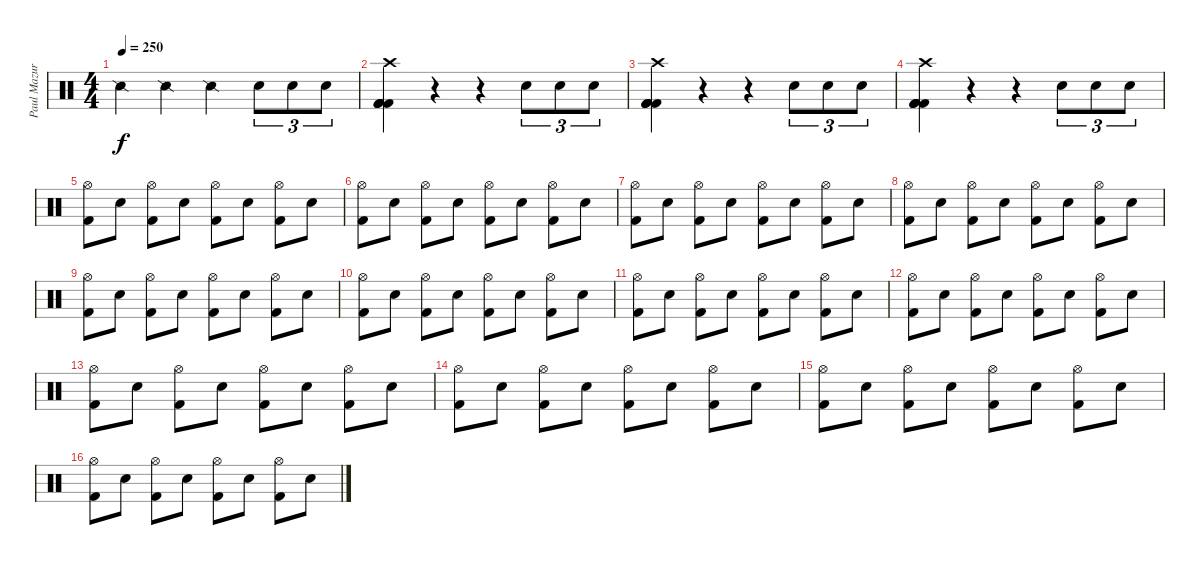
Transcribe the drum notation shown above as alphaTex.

\track ("Paul Mazurkiewicz" "Paul Mazur") {instrument percussion}
\staff {score}
\articulation defaults
\ts (4 4)
\tempo 250
\clef neutral
\ks c "Snare (side stick) 2".4{dy f} "Snare (side stick) 2".4 "Snare (side stick) 2".4 "Snare (hit) 2".8{tu (3 2)} "Snare (hit) 2".8{tu (3 2)} "Snare (hit) 2".8{tu (3 2)}
|
("Kick (hit) 2" "Kick (hit) 2" "Kick (hit) 2" "Kick (hit) 2" "Crash high (hit)").4 r.4 r.4 "Snare (hit) 2".8{tu (3 2)} "Snare (hit) 2".8{tu (3 2)} "Snare (hit) 2".8{tu (3 2)} |
("Kick (hit) 2" "Kick (hit) 2" "Kick (hit) 2" "Kick (hit) 2" "Crash high (hit)").4 r.4 r.4 "Snare (hit) 2".8{tu (3 2)} "Snare (hit) 2".8{tu (3 2)} "Snare (hit) 2".8{tu (3 2)} |
("Kick (hit) 2" "Kick (hit) 2" "Kick (hit) 2" "Kick (hit) 2" "Crash high (hit)").4 r.4 r.4 "Snare (hit) 2".8{tu (3 2)} "Snare (hit) 2".8{tu (3 2)} "Snare (hit) 2".8{tu (3 2)} |
("Hi-Hat (open)" "Kick (hit) 2").8 "Snare (hit) 2".8 ("Hi-Hat (open)" "Kick (hit) 2").8 "Snare (hit) 2".8 ("Hi-Hat (open)" "Kick (hit) 2").8 "Snare (hit) 2".8 ("Hi-Hat (open)" "Kick (hit) 2").8 "Snare (hit) 2".8 |
("Hi-Hat (open)" "Kick (hit) 2").8 "Snare (hit) 2".8 ("Hi-Hat (open)" "Kick (hit) 2").8 "Snare (hit) 2".8 ("Hi-Hat (open)" "Kick (hit) 2").8 "Snare (hit) 2".8 ("Hi-Hat (open)" "Kick (hit) 2").8 "Snare (hit) 2".8 |
("Hi-Hat (open)" "Kick (hit) 2").8 "Snare (hit) 2".8 ("Hi-Hat (open)" "Kick (hit) 2").8 "Snare (hit) 2".8 ("Hi-Hat (open)" "Kick (hit) 2").8 "Snare (hit) 2".8 ("Hi-Hat (open)" "Kick (hit) 2").8 "Snare (hit) 2".8 |
("Hi-Hat (open)" "Kick (hit) 2").8 "Snare (hit) 2".8 ("Hi-Hat (open)" "Kick (hit) 2").8 "Snare (hit) 2".8 ("Hi-Hat (open)" "Kick (hit) 2").8 "Snare (hit) 2".8 ("Hi-Hat (open)" "Kick (hit) 2").8 "Snare (hit) 2".8 |
("Hi-Hat (open)" "Kick (hit) 2").8 "Snare (hit) 2".8 ("Hi-Hat (open)" "Kick (hit) 2").8 "Snare (hit) 2".8 ("Hi-Hat (open)" "Kick (hit) 2").8 "Snare (hit) 2".8 ("Hi-Hat (open)" "Kick (hit) 2").8 "Snare (hit) 2".8 |
("Hi-Hat (open)" "Kick (hit) 2").8 "Snare (hit) 2".8 ("Hi-Hat (open)" "Kick (hit) 2").8 "Snare (hit) 2".8 ("Hi-Hat (open)" "Kick (hit) 2").8 "Snare (hit) 2".8 ("Hi-Hat (open)" "Kick (hit) 2").8 "Snare (hit) 2".8 |
("Hi-Hat (open)" "Kick (hit) 2").8 "Snare (hit) 2".8 ("Hi-Hat (open)" "Kick (hit) 2").8 "Snare (hit) 2".8 ("Hi-Hat (open)" "Kick (hit) 2").8 "Snare (hit) 2".8 ("Hi-Hat (open)" "Kick (hit) 2").8 "Snare (hit) 2".8 |
("Hi-Hat (open)" "Kick (hit) 2").8 "Snare (hit) 2".8 ("Hi-Hat (open)" "Kick (hit) 2").8 "Snare (hit) 2".8 ("Hi-Hat (open)" "Kick (hit) 2").8 "Snare (hit) 2".8 ("Hi-Hat (open)" "Kick (hit) 2").8 "Snare (hit) 2".8 |
("Hi-Hat (open)" "Kick (hit) 2").8 "Snare (hit) 2".8 ("Hi-Hat (open)" "Kick (hit) 2").8 "Snare (hit) 2".8 ("Hi-Hat (open)" "Kick (hit) 2").8 "Snare (hit) 2".8 ("Hi-Hat (open)" "Kick (hit) 2").8 "Snare (hit) 2".8 |
("Hi-Hat (open)" "Kick (hit) 2").8 "Snare (hit) 2".8 ("Hi-Hat (open)" "Kick (hit) 2").8 "Snare (hit) 2".8 ("Hi-Hat (open)" "Kick (hit) 2").8 "Snare (hit) 2".8 ("Hi-Hat (open)" "Kick (hit) 2").8 "Snare (hit) 2".8 |
("Hi-Hat (open)" "Kick (hit) 2").8 "Snare (hit) 2".8 ("Hi-Hat (open)" "Kick (hit) 2").8 "Snare (hit) 2".8 ("Hi-Hat (open)" "Kick (hit) 2").8 "Snare (hit) 2".8 ("Hi-Hat (open)" "Kick (hit) 2").8 "Snare (hit) 2".8 |
("Hi-Hat (open)" "Kick (hit) 2").8 "Snare (hit) 2".8 ("Hi-Hat (open)" "Kick (hit) 2").8 "Snare (hit) 2".8 ("Hi-Hat (open)" "Kick (hit) 2").8 "Snare (hit) 2".8 ("Hi-Hat (open)" "Kick (hit) 2").8 "Snare (hit) 2".8
